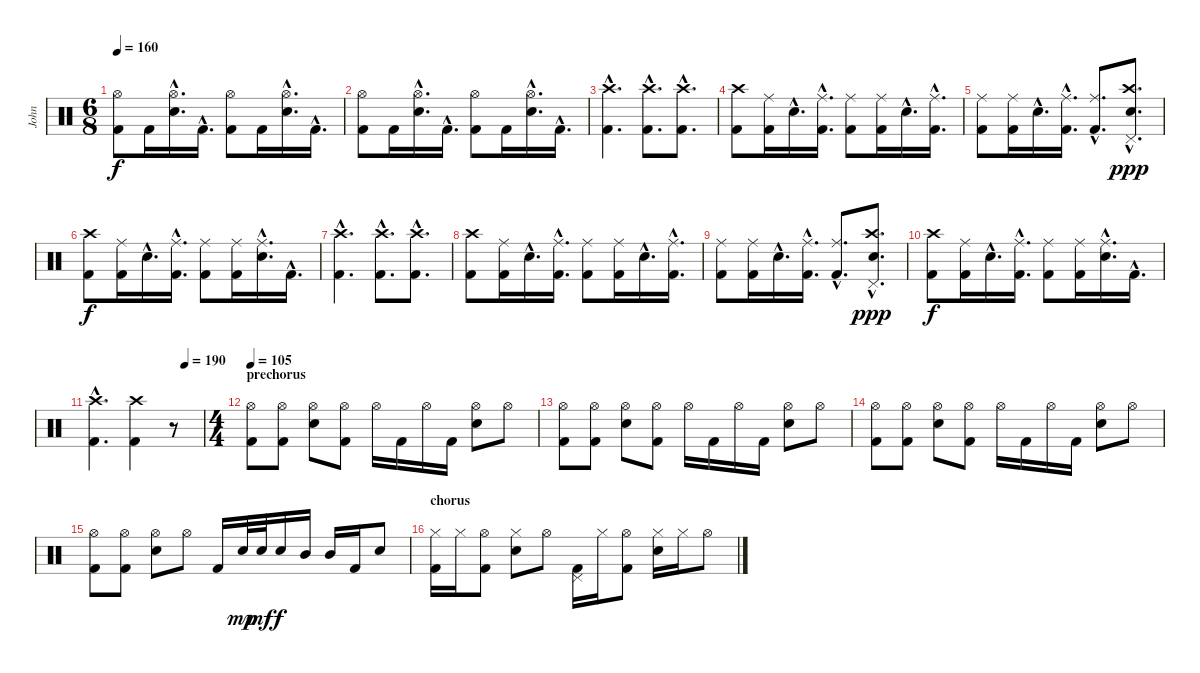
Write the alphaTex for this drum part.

\track ("John" "John") {instrument percussion}
\staff {score}
\articulation defaults
\ts (6 8)
\tempo 160
\clef neutral
\ks c
("Hi-Hat (open)" "Kick (hit) 2").8{dy f} "Kick (hit) 2".16 ("Hi-Hat (open)"{hac} "Electric Snare (hit)"{hac}).16{d} "Kick (hit) 2"{hac}.16{d} ("Hi-Hat (open)" "Kick (hit) 2").8 "Kick (hit) 2".16 ("Hi-Hat (open)"{hac} "Electric Snare (hit)"{hac}).16{d} "Kick (hit) 2"{hac}.16{d} |
("Hi-Hat (open)" "Kick (hit) 2").8 "Kick (hit) 2".16 ("Hi-Hat (open)"{hac} "Electric Snare (hit)"{hac}).16{d} "Kick (hit) 2"{hac}.16{d} ("Hi-Hat (open)" "Kick (hit) 2").8 "Kick (hit) 2".16 ("Hi-Hat (open)"{hac} "Electric Snare (hit)"{hac}).16{d} "Kick (hit) 2"{hac}.16{d} |
("Crash high (hit)"{hac} "Kick (hit) 2"{hac}).4{d} ("Crash high (hit)"{hac} "Kick (hit) 2"{hac}).8{d} ("Crash high (hit)"{hac} "Kick (hit) 2"{hac}).8{d} |
("Crash high (hit)" "Kick (hit) 2").8 ("Ride (middle)" "Kick (hit) 2").16 "Electric Snare (hit)"{hac}.16{d} ("Ride (middle)"{hac} "Kick (hit) 2"{hac}).16{d} ("Ride (middle)" "Kick (hit) 2").8 ("Ride (middle)" "Kick (hit) 2").16 "Electric Snare (hit)"{hac}.16{d} ("Ride (middle)"{hac} "Kick (hit) 2"{hac}).16{d} |
("Ride (middle)" "Kick (hit) 2").8 ("Ride (middle)" "Kick (hit) 2").16 "Electric Snare (hit)"{hac}.16{d} ("Ride (middle)"{hac} "Kick (hit) 2"{hac}).16{d} ("Ride (middle)"{hac} "Kick (hit) 2"{hac}).8{d} ("Crash high (hit)"{hac} "Pedal Hi-Hat (hit)"{hac} "Electric Snare (hit)"{hac}).8{d dy ppp} |
("Crash high (hit)" "Kick (hit) 2").8{dy f} ("Ride (middle)" "Kick (hit) 2").16 "Electric Snare (hit)"{hac}.16{d} ("Ride (middle)"{hac} "Kick (hit) 2"{hac}).16{d} ("Ride (middle)" "Kick (hit) 2").8 ("Ride (middle)" "Kick (hit) 2").16 ("Ride (middle)"{hac} "Electric Snare (hit)"{hac}).16{d} "Kick (hit) 2"{hac}.16{d} |
("Crash high (hit)"{hac} "Kick (hit) 2"{hac}).4{d} ("Crash high (hit)"{hac} "Kick (hit) 2"{hac}).8{d} ("Crash high (hit)"{hac} "Kick (hit) 2"{hac}).8{d} |
("Crash high (hit)" "Kick (hit) 2").8 ("Ride (middle)" "Kick (hit) 2").16 "Electric Snare (hit)"{hac}.16{d} ("Ride (middle)"{hac} "Kick (hit) 2"{hac}).16{d} ("Ride (middle)" "Kick (hit) 2").8 ("Ride (middle)" "Kick (hit) 2").16 "Electric Snare (hit)"{hac}.16{d} ("Ride (middle)"{hac} "Kick (hit) 2"{hac}).16{d} |
("Ride (middle)" "Kick (hit) 2").8 ("Ride (middle)" "Kick (hit) 2").16 "Electric Snare (hit)"{hac}.16{d} ("Ride (middle)"{hac} "Kick (hit) 2"{hac}).16{d} ("Ride (middle)"{hac} "Kick (hit) 2"{hac}).8{d} ("Crash high (hit)"{hac} "Pedal Hi-Hat (hit)"{hac} "Electric Snare (hit)"{hac}).8{d dy ppp} |
("Crash high (hit)" "Kick (hit) 2").8{dy f} ("Ride (middle)" "Kick (hit) 2").16 "Electric Snare (hit)"{hac}.16{d} ("Ride (middle)"{hac} "Kick (hit) 2"{hac}).16{d} ("Ride (middle)" "Kick (hit) 2").8 ("Ride (middle)" "Kick (hit) 2").16 ("Ride (middle)"{hac} "Electric Snare (hit)"{hac}).16{d} "Kick (hit) 2"{hac}.16{d} |
\tempo (190 0.8333333333333334)
("Crash high (hit)"{hac} "Kick (hit) 2"{hac}).4{d} ("Crash high (hit)" "Kick (hit) 2").4 r.8 |
\ts (4 4)
\section ("" "prechorus")
\tempo 105
("Hi-Hat (open)" "Kick (hit) 2").8 ("Hi-Hat (open)" "Kick (hit) 2").8 ("Hi-Hat (open)" "Electric Snare (hit)").8 ("Hi-Hat (open)" "Kick (hit) 2").8 "Hi-Hat (open)".16 "Kick (hit) 2".16 "Hi-Hat (open)".16 "Kick (hit) 2".16 ("Hi-Hat (open)" "Electric Snare (hit)").8 "Hi-Hat (open)".8 |
("Hi-Hat (open)" "Kick (hit) 2").8 ("Hi-Hat (open)" "Kick (hit) 2").8 ("Hi-Hat (open)" "Electric Snare (hit)").8 ("Hi-Hat (open)" "Kick (hit) 2").8 "Hi-Hat (open)".16 "Kick (hit) 2".16 "Hi-Hat (open)".16 "Kick (hit) 2".16 ("Hi-Hat (open)" "Electric Snare (hit)").8 "Hi-Hat (open)".8 |
("Hi-Hat (open)" "Kick (hit) 2").8 ("Hi-Hat (open)" "Kick (hit) 2").8 ("Hi-Hat (open)" "Electric Snare (hit)").8 ("Hi-Hat (open)" "Kick (hit) 2").8 "Hi-Hat (open)".16 "Kick (hit) 2".16 "Hi-Hat (open)".16 "Kick (hit) 2".16 ("Hi-Hat (open)" "Electric Snare (hit)").8 "Hi-Hat (open)".8 |
("Hi-Hat (open)" "Kick (hit) 2").8 ("Hi-Hat (open)" "Kick (hit) 2").8 ("Hi-Hat (open)" "Electric Snare (hit)").8 "Hi-Hat (open)".8 "Kick (hit) 2".16 "Electric Snare (hit)".32{dy mp} "Electric Snare (hit)".32{dy mf} "Electric Snare (hit)".16{dy f} "Mid Tom (hit)".16 "Mid Tom (hit)".16 "Kick (hit) 2".16 "Electric Snare (hit)".8 |
\section ("" "chorus")
("Hi-Hat (closed)" "Kick (hit) 2").16 "Hi-Hat (closed)".16 ("Hi-Hat (open)" "Kick (hit) 2").8 ("Hi-Hat (closed)" "Electric Snare (hit)").8 "Hi-Hat (open)".8 ("Pedal Hi-Hat (hit)" "Kick (hit) 2").16 "Hi-Hat (closed)".16 ("Hi-Hat (open)" "Kick (hit) 2").8 ("Hi-Hat (closed)" "Electric Snare (hit)").16 "Hi-Hat (closed)".16 "Hi-Hat (open)".8
